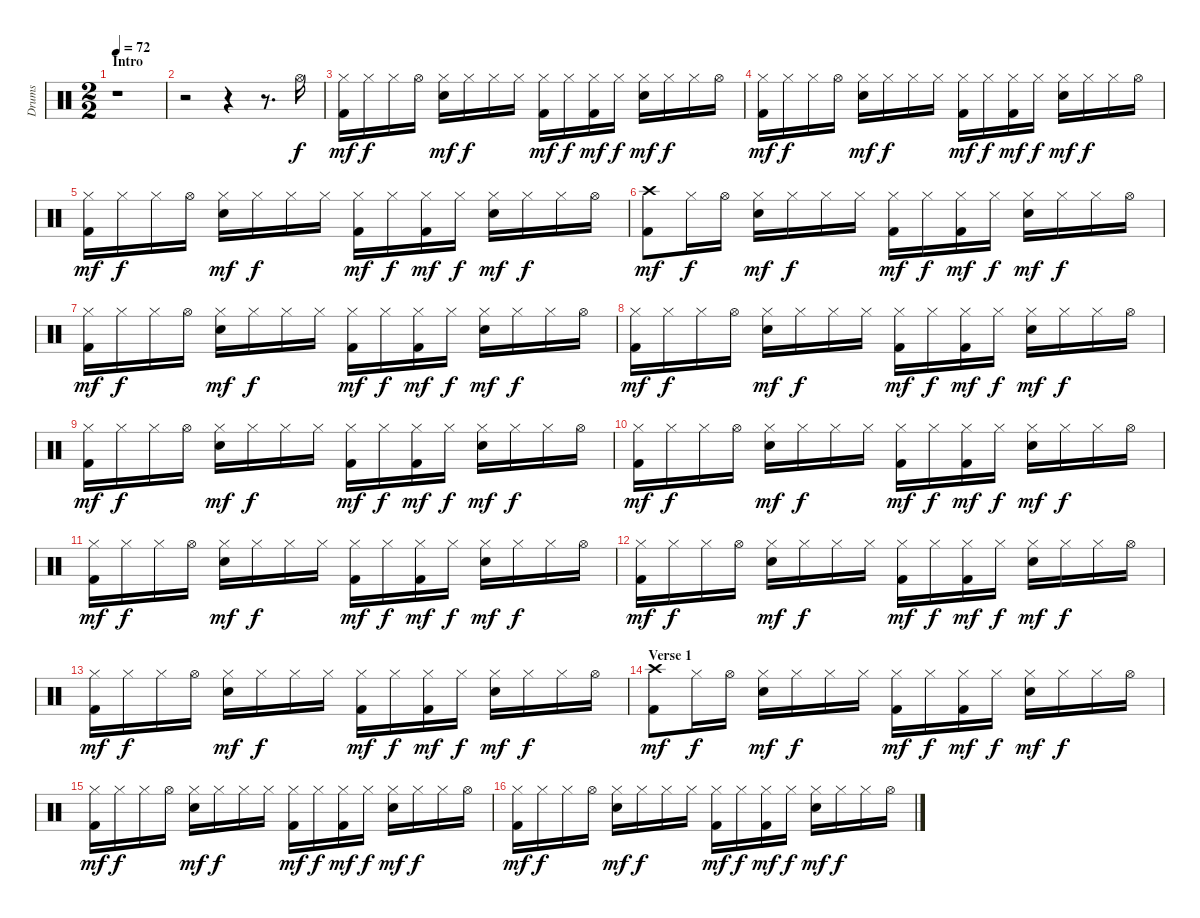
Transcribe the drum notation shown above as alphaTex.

\track ("Drums" "Drums") {instrument percussion}
\staff {score}
\articulation defaults
\ts (2 2)
\section ("" "Intro")
\tempo 72
\clef neutral
\ks c
r.1{dy f} |
r.2 r.4 r.8{d} "Hi-Hat (open)".16 |
("Hi-Hat (closed)" "Kick (hit) 2").16{dy mf} "Hi-Hat (closed)".16{dy f} "Hi-Hat (closed)".16 "Hi-Hat (open)".16 ("Hi-Hat (closed)" "Electric Snare (hit)").16{dy mf} "Hi-Hat (closed)".16{dy f} "Hi-Hat (closed)".16 "Hi-Hat (closed)".16 ("Hi-Hat (closed)" "Kick (hit) 2").16{dy mf} "Hi-Hat (closed)".16{dy f} ("Hi-Hat (closed)" "Kick (hit) 2").16{dy mf} "Hi-Hat (closed)".16{dy f} ("Hi-Hat (closed)" "Electric Snare (hit)").16{dy mf} "Hi-Hat (closed)".16{dy f} "Hi-Hat (closed)".16 "Hi-Hat (open)".16 |
("Hi-Hat (closed)" "Kick (hit) 2").16{dy mf} "Hi-Hat (closed)".16{dy f} "Hi-Hat (closed)".16 "Hi-Hat (open)".16 ("Hi-Hat (closed)" "Electric Snare (hit)").16{dy mf} "Hi-Hat (closed)".16{dy f} "Hi-Hat (closed)".16 "Hi-Hat (closed)".16 ("Hi-Hat (closed)" "Kick (hit) 2").16{dy mf} "Hi-Hat (closed)".16{dy f} ("Hi-Hat (closed)" "Kick (hit) 2").16{dy mf} "Hi-Hat (closed)".16{dy f} ("Hi-Hat (closed)" "Electric Snare (hit)").16{dy mf} "Hi-Hat (closed)".16{dy f} "Hi-Hat (closed)".16 "Hi-Hat (open)".16 |
("Hi-Hat (closed)" "Kick (hit) 2").16{dy mf} "Hi-Hat (closed)".16{dy f} "Hi-Hat (closed)".16 "Hi-Hat (open)".16 ("Hi-Hat (closed)" "Electric Snare (hit)").16{dy mf} "Hi-Hat (closed)".16{dy f} "Hi-Hat (closed)".16 "Hi-Hat (closed)".16 ("Hi-Hat (closed)" "Kick (hit) 2").16{dy mf} "Hi-Hat (closed)".16{dy f} ("Hi-Hat (closed)" "Kick (hit) 2").16{dy mf} "Hi-Hat (closed)".16{dy f} ("Hi-Hat (closed)" "Electric Snare (hit)").16{dy mf} "Hi-Hat (closed)".16{dy f} "Hi-Hat (closed)".16 "Hi-Hat (open)".16 |
("Crash high (hit)" "Kick (hit) 2").8{dy mf} "Hi-Hat (closed)".16{dy f} "Hi-Hat (open)".16 ("Hi-Hat (closed)" "Electric Snare (hit)").16{dy mf} "Hi-Hat (closed)".16{dy f} "Hi-Hat (closed)".16 "Hi-Hat (closed)".16 ("Hi-Hat (closed)" "Kick (hit) 2").16{dy mf} "Hi-Hat (closed)".16{dy f} ("Hi-Hat (closed)" "Kick (hit) 2").16{dy mf} "Hi-Hat (closed)".16{dy f} ("Hi-Hat (closed)" "Electric Snare (hit)").16{dy mf} "Hi-Hat (closed)".16{dy f} "Hi-Hat (closed)".16 "Hi-Hat (open)".16 |
("Hi-Hat (closed)" "Kick (hit) 2").16{dy mf} "Hi-Hat (closed)".16{dy f} "Hi-Hat (closed)".16 "Hi-Hat (open)".16 ("Hi-Hat (closed)" "Electric Snare (hit)").16{dy mf} "Hi-Hat (closed)".16{dy f} "Hi-Hat (closed)".16 "Hi-Hat (closed)".16 ("Hi-Hat (closed)" "Kick (hit) 2").16{dy mf} "Hi-Hat (closed)".16{dy f} ("Hi-Hat (closed)" "Kick (hit) 2").16{dy mf} "Hi-Hat (closed)".16{dy f} ("Hi-Hat (closed)" "Electric Snare (hit)").16{dy mf} "Hi-Hat (closed)".16{dy f} "Hi-Hat (closed)".16 "Hi-Hat (open)".16 |
("Hi-Hat (closed)" "Kick (hit) 2").16{dy mf} "Hi-Hat (closed)".16{dy f} "Hi-Hat (closed)".16 "Hi-Hat (open)".16 ("Hi-Hat (closed)" "Electric Snare (hit)").16{dy mf} "Hi-Hat (closed)".16{dy f} "Hi-Hat (closed)".16 "Hi-Hat (closed)".16 ("Hi-Hat (closed)" "Kick (hit) 2").16{dy mf} "Hi-Hat (closed)".16{dy f} ("Hi-Hat (closed)" "Kick (hit) 2").16{dy mf} "Hi-Hat (closed)".16{dy f} ("Hi-Hat (closed)" "Electric Snare (hit)").16{dy mf} "Hi-Hat (closed)".16{dy f} "Hi-Hat (closed)".16 "Hi-Hat (open)".16 |
("Hi-Hat (closed)" "Kick (hit) 2").16{dy mf} "Hi-Hat (closed)".16{dy f} "Hi-Hat (closed)".16 "Hi-Hat (open)".16 ("Hi-Hat (closed)" "Electric Snare (hit)").16{dy mf} "Hi-Hat (closed)".16{dy f} "Hi-Hat (closed)".16 "Hi-Hat (closed)".16 ("Hi-Hat (closed)" "Kick (hit) 2").16{dy mf} "Hi-Hat (closed)".16{dy f} ("Hi-Hat (closed)" "Kick (hit) 2").16{dy mf} "Hi-Hat (closed)".16{dy f} ("Hi-Hat (closed)" "Electric Snare (hit)").16{dy mf} "Hi-Hat (closed)".16{dy f} "Hi-Hat (closed)".16 "Hi-Hat (open)".16 |
("Hi-Hat (closed)" "Kick (hit) 2").16{dy mf} "Hi-Hat (closed)".16{dy f} "Hi-Hat (closed)".16 "Hi-Hat (open)".16 ("Hi-Hat (closed)" "Electric Snare (hit)").16{dy mf} "Hi-Hat (closed)".16{dy f} "Hi-Hat (closed)".16 "Hi-Hat (closed)".16 ("Hi-Hat (closed)" "Kick (hit) 2").16{dy mf} "Hi-Hat (closed)".16{dy f} ("Hi-Hat (closed)" "Kick (hit) 2").16{dy mf} "Hi-Hat (closed)".16{dy f} ("Hi-Hat (closed)" "Electric Snare (hit)").16{dy mf} "Hi-Hat (closed)".16{dy f} "Hi-Hat (closed)".16 "Hi-Hat (open)".16 |
("Hi-Hat (closed)" "Kick (hit) 2").16{dy mf} "Hi-Hat (closed)".16{dy f} "Hi-Hat (closed)".16 "Hi-Hat (open)".16 ("Hi-Hat (closed)" "Electric Snare (hit)").16{dy mf} "Hi-Hat (closed)".16{dy f} "Hi-Hat (closed)".16 "Hi-Hat (closed)".16 ("Hi-Hat (closed)" "Kick (hit) 2").16{dy mf} "Hi-Hat (closed)".16{dy f} ("Hi-Hat (closed)" "Kick (hit) 2").16{dy mf} "Hi-Hat (closed)".16{dy f} ("Hi-Hat (closed)" "Electric Snare (hit)").16{dy mf} "Hi-Hat (closed)".16{dy f} "Hi-Hat (closed)".16 "Hi-Hat (open)".16 |
("Hi-Hat (closed)" "Kick (hit) 2").16{dy mf} "Hi-Hat (closed)".16{dy f} "Hi-Hat (closed)".16 "Hi-Hat (open)".16 ("Hi-Hat (closed)" "Electric Snare (hit)").16{dy mf} "Hi-Hat (closed)".16{dy f} "Hi-Hat (closed)".16 "Hi-Hat (closed)".16 ("Hi-Hat (closed)" "Kick (hit) 2").16{dy mf} "Hi-Hat (closed)".16{dy f} ("Hi-Hat (closed)" "Kick (hit) 2").16{dy mf} "Hi-Hat (closed)".16{dy f} ("Hi-Hat (closed)" "Electric Snare (hit)").16{dy mf} "Hi-Hat (closed)".16{dy f} "Hi-Hat (closed)".16 "Hi-Hat (open)".16 |
("Hi-Hat (closed)" "Kick (hit) 2").16{dy mf} "Hi-Hat (closed)".16{dy f} "Hi-Hat (closed)".16 "Hi-Hat (open)".16 ("Hi-Hat (closed)" "Electric Snare (hit)").16{dy mf} "Hi-Hat (closed)".16{dy f} "Hi-Hat (closed)".16 "Hi-Hat (closed)".16 ("Hi-Hat (closed)" "Kick (hit) 2").16{dy mf} "Hi-Hat (closed)".16{dy f} ("Hi-Hat (closed)" "Kick (hit) 2").16{dy mf} "Hi-Hat (closed)".16{dy f} ("Hi-Hat (closed)" "Electric Snare (hit)").16{dy mf} "Hi-Hat (closed)".16{dy f} "Hi-Hat (closed)".16 "Hi-Hat (open)".16 |
\section ("" "Verse 1")
("Crash high (hit)" "Kick (hit) 2").8{dy mf} "Hi-Hat (closed)".16{dy f} "Hi-Hat (open)".16 ("Hi-Hat (closed)" "Electric Snare (hit)").16{dy mf} "Hi-Hat (closed)".16{dy f} "Hi-Hat (closed)".16 "Hi-Hat (closed)".16 ("Hi-Hat (closed)" "Kick (hit) 2").16{dy mf} "Hi-Hat (closed)".16{dy f} ("Hi-Hat (closed)" "Kick (hit) 2").16{dy mf} "Hi-Hat (closed)".16{dy f} ("Hi-Hat (closed)" "Electric Snare (hit)").16{dy mf} "Hi-Hat (closed)".16{dy f} "Hi-Hat (closed)".16 "Hi-Hat (open)".16 |
("Hi-Hat (closed)" "Kick (hit) 2").16{dy mf} "Hi-Hat (closed)".16{dy f} "Hi-Hat (closed)".16 "Hi-Hat (open)".16 ("Hi-Hat (closed)" "Electric Snare (hit)").16{dy mf} "Hi-Hat (closed)".16{dy f} "Hi-Hat (closed)".16 "Hi-Hat (closed)".16 ("Hi-Hat (closed)" "Kick (hit) 2").16{dy mf} "Hi-Hat (closed)".16{dy f} ("Hi-Hat (closed)" "Kick (hit) 2").16{dy mf} "Hi-Hat (closed)".16{dy f} ("Hi-Hat (closed)" "Electric Snare (hit)").16{dy mf} "Hi-Hat (closed)".16{dy f} "Hi-Hat (closed)".16 "Hi-Hat (open)".16 |
("Hi-Hat (closed)" "Kick (hit) 2").16{dy mf} "Hi-Hat (closed)".16{dy f} "Hi-Hat (closed)".16 "Hi-Hat (open)".16 ("Hi-Hat (closed)" "Electric Snare (hit)").16{dy mf} "Hi-Hat (closed)".16{dy f} "Hi-Hat (closed)".16 "Hi-Hat (closed)".16 ("Hi-Hat (closed)" "Kick (hit) 2").16{dy mf} "Hi-Hat (closed)".16{dy f} ("Hi-Hat (closed)" "Kick (hit) 2").16{dy mf} "Hi-Hat (closed)".16{dy f} ("Hi-Hat (closed)" "Electric Snare (hit)").16{dy mf} "Hi-Hat (closed)".16{dy f} "Hi-Hat (closed)".16 "Hi-Hat (open)".16
